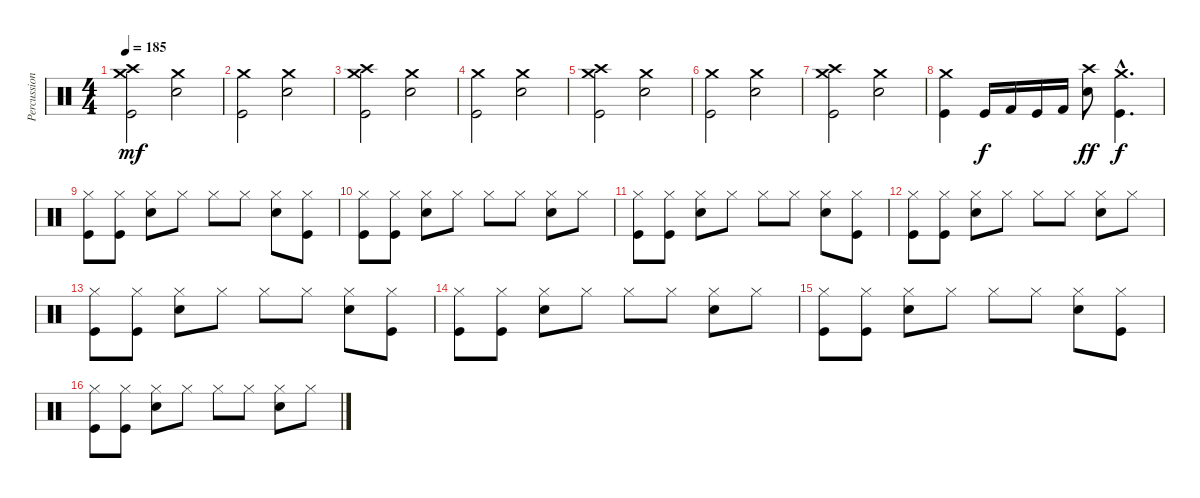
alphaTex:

\track ("Percussions" "Percussion") {instrument percussion}
\staff {score}
\articulation defaults
\ts (4 4)
\tempo 185
\clef neutral
\ks c
("Kick (hit)" "Crash medium (hit)" "Crash high (hit)").2{dy mf} ("Electric Snare (hit)" "Crash medium (hit)").2 |
("Kick (hit)" "Crash medium (hit)").2 ("Electric Snare (hit)" "Crash medium (hit)").2 |
("Kick (hit)" "Crash medium (hit)" "Crash high (hit)").2 ("Electric Snare (hit)" "Crash medium (hit)").2 |
("Kick (hit)" "Crash medium (hit)").2 ("Electric Snare (hit)" "Crash medium (hit)").2 |
("Kick (hit)" "Crash medium (hit)" "Crash high (hit)").2 ("Electric Snare (hit)" "Crash medium (hit)").2 |
("Kick (hit)" "Crash medium (hit)").2 ("Electric Snare (hit)" "Crash medium (hit)").2 |
("Kick (hit)" "Crash medium (hit)" "Crash high (hit)").2 ("Electric Snare (hit)" "Crash medium (hit)").2 |
("Kick (hit)" "Crash medium (hit)").4 "Kick (hit)".16{dy f} "Kick (hit) 2".16 "Kick (hit)".16 "Kick (hit) 2".16 ("Electric Snare (hit)" "Crash high (hit)").8{dy ff} ("Kick (hit)"{hac} "Crash medium (hit)"{hac}).4{d dy f} |
("Kick (hit)" "Hi-Hat (closed)").8 ("Kick (hit)" "Hi-Hat (closed)").8 ("Electric Snare (hit)" "Hi-Hat (closed)").8 "Hi-Hat (closed)".8 "Hi-Hat (closed)".8 "Hi-Hat (closed)".8 ("Electric Snare (hit)" "Hi-Hat (closed)").8 ("Kick (hit)" "Hi-Hat (closed)").8 |
("Kick (hit)" "Hi-Hat (closed)").8 ("Kick (hit)" "Hi-Hat (closed)").8 ("Electric Snare (hit)" "Hi-Hat (closed)").8 "Hi-Hat (closed)".8 "Hi-Hat (closed)".8 "Hi-Hat (closed)".8 ("Electric Snare (hit)" "Hi-Hat (closed)").8 "Hi-Hat (closed)".8 |
("Kick (hit)" "Hi-Hat (closed)").8 ("Kick (hit)" "Hi-Hat (closed)").8 ("Electric Snare (hit)" "Hi-Hat (closed)").8 "Hi-Hat (closed)".8 "Hi-Hat (closed)".8 "Hi-Hat (closed)".8 ("Electric Snare (hit)" "Hi-Hat (closed)").8 ("Kick (hit)" "Hi-Hat (closed)").8 |
("Kick (hit)" "Hi-Hat (closed)").8 ("Kick (hit)" "Hi-Hat (closed)").8 ("Electric Snare (hit)" "Hi-Hat (closed)").8 "Hi-Hat (closed)".8 "Hi-Hat (closed)".8 "Hi-Hat (closed)".8 ("Electric Snare (hit)" "Hi-Hat (closed)").8 "Hi-Hat (closed)".8 |
("Kick (hit)" "Hi-Hat (closed)").8 ("Kick (hit)" "Hi-Hat (closed)").8 ("Electric Snare (hit)" "Hi-Hat (closed)").8 "Hi-Hat (closed)".8 "Hi-Hat (closed)".8 "Hi-Hat (closed)".8 ("Electric Snare (hit)" "Hi-Hat (closed)").8 ("Kick (hit)" "Hi-Hat (closed)").8 |
("Kick (hit)" "Hi-Hat (closed)").8 ("Kick (hit)" "Hi-Hat (closed)").8 ("Electric Snare (hit)" "Hi-Hat (closed)").8 "Hi-Hat (closed)".8 "Hi-Hat (closed)".8 "Hi-Hat (closed)".8 ("Electric Snare (hit)" "Hi-Hat (closed)").8 "Hi-Hat (closed)".8 |
("Kick (hit)" "Hi-Hat (closed)").8 ("Kick (hit)" "Hi-Hat (closed)").8 ("Electric Snare (hit)" "Hi-Hat (closed)").8 "Hi-Hat (closed)".8 "Hi-Hat (closed)".8 "Hi-Hat (closed)".8 ("Electric Snare (hit)" "Hi-Hat (closed)").8 ("Kick (hit)" "Hi-Hat (closed)").8 |
("Kick (hit)" "Hi-Hat (closed)").8 ("Kick (hit)" "Hi-Hat (closed)").8 ("Electric Snare (hit)" "Hi-Hat (closed)").8 "Hi-Hat (closed)".8 "Hi-Hat (closed)".8 "Hi-Hat (closed)".8 ("Electric Snare (hit)" "Hi-Hat (closed)").8 "Hi-Hat (closed)".8
